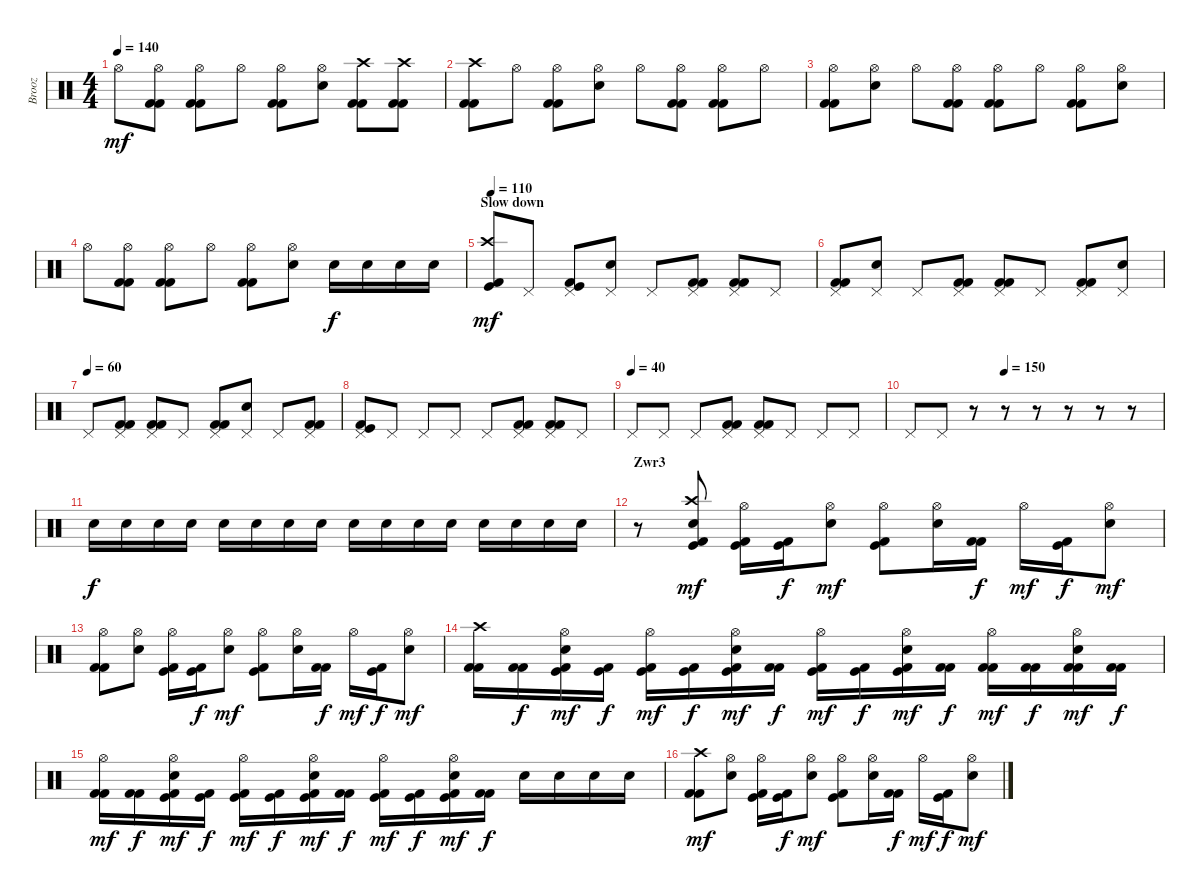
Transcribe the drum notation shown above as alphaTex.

\track ("Brooz" "Brooz") {instrument percussion}
\staff {score}
\articulation defaults
\ts (4 4)
\tempo 140
\clef neutral
\ks c "Hi-Hat (open)".8{dy mf}
("Hi-Hat (open)" "Kick (hit) 2" "Kick (hit) 2").8 ("Hi-Hat (open)" "Kick (hit) 2" "Kick (hit) 2").8 "Hi-Hat (open)".8 ("Hi-Hat (open)" "Kick (hit) 2" "Kick (hit) 2").8 ("Hi-Hat (open)" "Snare (hit) 2").8 ("Crash high (hit)" "Kick (hit) 2" "Kick (hit) 2").8 ("Crash high (hit)" "Kick (hit) 2" "Kick (hit) 2").8 |
("Crash high (hit)" "Kick (hit) 2" "Kick (hit) 2").8 "Hi-Hat (open)".8 ("Hi-Hat (open)" "Kick (hit) 2" "Kick (hit) 2").8 ("Hi-Hat (open)" "Snare (hit) 2").8 "Hi-Hat (open)".8 ("Hi-Hat (open)" "Kick (hit) 2" "Kick (hit) 2").8 ("Hi-Hat (open)" "Kick (hit) 2" "Kick (hit) 2").8 "Hi-Hat (open)".8 |
("Hi-Hat (open)" "Kick (hit) 2" "Kick (hit) 2").8 ("Hi-Hat (open)" "Snare (hit) 2").8 "Hi-Hat (open)".8 ("Hi-Hat (open)" "Kick (hit) 2" "Kick (hit) 2").8 ("Hi-Hat (open)" "Kick (hit) 2" "Kick (hit) 2").8 "Hi-Hat (open)".8 ("Hi-Hat (open)" "Kick (hit) 2" "Kick (hit) 2").8 ("Hi-Hat (open)" "Snare (hit) 2").8 |
"Hi-Hat (open)".8 ("Hi-Hat (open)" "Kick (hit) 2" "Kick (hit) 2").8 ("Hi-Hat (open)" "Kick (hit) 2" "Kick (hit) 2").8 "Hi-Hat (open)".8 ("Hi-Hat (open)" "Kick (hit) 2" "Kick (hit) 2").8 ("Hi-Hat (open)" "Snare (hit) 2").8 "Snare (hit) 2".16{dy f} "Snare (hit) 2".16 "Snare (hit) 2".16 "Snare (hit) 2".16 |
\section ("" "Slow down")
\tempo 110
("Crash high (hit)" "Kick (hit) 2" "Kick (hit)").8{dy mf} "Pedal Hi-Hat (hit)".8 ("Pedal Hi-Hat (hit)" "Kick (hit) 2" "Kick (hit)").8 ("Pedal Hi-Hat (hit)" "Snare (hit) 2").8 "Pedal Hi-Hat (hit)".8 ("Pedal Hi-Hat (hit)" "Kick (hit) 2" "Kick (hit) 2").8 ("Pedal Hi-Hat (hit)" "Kick (hit) 2" "Kick (hit) 2").8 "Pedal Hi-Hat (hit)".8 |
("Pedal Hi-Hat (hit)" "Kick (hit) 2" "Kick (hit) 2").8 ("Pedal Hi-Hat (hit)" "Snare (hit) 2").8 "Pedal Hi-Hat (hit)".8 ("Pedal Hi-Hat (hit)" "Kick (hit) 2" "Kick (hit) 2").8 ("Pedal Hi-Hat (hit)" "Kick (hit) 2" "Kick (hit) 2").8 "Pedal Hi-Hat (hit)".8 ("Pedal Hi-Hat (hit)" "Kick (hit) 2" "Kick (hit) 2").8 ("Pedal Hi-Hat (hit)" "Snare (hit) 2").8 |
\tempo (60)
"Pedal Hi-Hat (hit)".8 ("Pedal Hi-Hat (hit)" "Kick (hit) 2" "Kick (hit) 2").8 ("Pedal Hi-Hat (hit)" "Kick (hit) 2" "Kick (hit) 2").8 "Pedal Hi-Hat (hit)".8 ("Pedal Hi-Hat (hit)" "Kick (hit) 2" "Kick (hit) 2").8 ("Pedal Hi-Hat (hit)" "Snare (hit) 2").8 "Pedal Hi-Hat (hit)".8 ("Pedal Hi-Hat (hit)" "Kick (hit) 2" "Kick (hit) 2").8 |
("Pedal Hi-Hat (hit)" "Kick (hit) 2" "Kick (hit)").8 "Pedal Hi-Hat (hit)".8 "Pedal Hi-Hat (hit)".8 "Pedal Hi-Hat (hit)".8 "Pedal Hi-Hat (hit)".8 ("Pedal Hi-Hat (hit)" "Kick (hit) 2" "Kick (hit) 2").8 ("Pedal Hi-Hat (hit)" "Kick (hit) 2" "Kick (hit) 2").8 "Pedal Hi-Hat (hit)".8 |
\tempo (40)
"Pedal Hi-Hat (hit)".8 "Pedal Hi-Hat (hit)".8 "Pedal Hi-Hat (hit)".8 ("Pedal Hi-Hat (hit)" "Kick (hit) 2" "Kick (hit) 2").8 ("Pedal Hi-Hat (hit)" "Kick (hit) 2" "Kick (hit) 2").8 "Pedal Hi-Hat (hit)".8 "Pedal Hi-Hat (hit)".8 "Pedal Hi-Hat (hit)".8 |
\tempo (150 0.375)
"Pedal Hi-Hat (hit)".8 "Pedal Hi-Hat (hit)".8 r.8 r.8 r.8 r.8 r.8 r.8 |
"Electric Snare (hit)".16{dy f volume 10 balance 14} "Electric Snare (hit)".16 "Electric Snare (hit)".16 "Electric Snare (hit)".16 "Electric Snare (hit)".16 "Electric Snare (hit)".16 "Electric Snare (hit)".16 "Electric Snare (hit)".16 "Electric Snare (hit)".16 "Electric Snare (hit)".16 "Electric Snare (hit)".16 "Electric Snare (hit)".16 "Electric Snare (hit)".16 "Electric Snare (hit)".16 "Electric Snare (hit)".16 "Electric Snare (hit)".16 |
\section ("" "Zwr3")
r.8{volume 16 balance 8} ("Crash high (hit)" "Snare (hit) 2" "Kick (hit) 2" "Kick (hit)").8{dy mf} ("Hi-Hat (open)" "Kick (hit) 2" "Kick (hit)").16 ("Kick (hit) 2" "Kick (hit)").16{dy f} ("Hi-Hat (open)" "Snare (hit) 2").8{dy mf} ("Hi-Hat (open)" "Kick (hit) 2" "Kick (hit)").8 ("Hi-Hat (open)" "Snare (hit) 2").16 ("Kick (hit) 2" "Kick (hit) 2").16{dy f} "Hi-Hat (open)".16{dy mf} ("Kick (hit) 2" "Kick (hit)").16{dy f} ("Hi-Hat (open)" "Snare (hit) 2").8{dy mf} |
("Hi-Hat (open)" "Kick (hit) 2" "Kick (hit) 2").8 ("Hi-Hat (open)" "Snare (hit) 2").8 ("Hi-Hat (open)" "Kick (hit) 2" "Kick (hit)").16 ("Kick (hit) 2" "Kick (hit)").16{dy f} ("Hi-Hat (open)" "Snare (hit) 2").8{dy mf} ("Hi-Hat (open)" "Kick (hit) 2" "Kick (hit)").8 ("Hi-Hat (open)" "Snare (hit) 2").16 ("Kick (hit) 2" "Kick (hit) 2").16{dy f} "Hi-Hat (open)".16{dy mf} ("Kick (hit) 2" "Kick (hit)").16{dy f} ("Hi-Hat (open)" "Snare (hit) 2").8{dy mf} |
("Crash high (hit)" "Kick (hit) 2" "Kick (hit) 2").16 ("Kick (hit) 2" "Kick (hit) 2").16{dy f} ("Hi-Hat (open)" "Snare (hit) 2" "Kick (hit) 2" "Kick (hit)").16{dy mf} ("Kick (hit) 2" "Kick (hit)").16{dy f} ("Hi-Hat (open)" "Kick (hit) 2" "Kick (hit)").16{dy mf} ("Kick (hit) 2" "Kick (hit)").16{dy f} ("Hi-Hat (open)" "Snare (hit) 2" "Kick (hit) 2" "Kick (hit)").16{dy mf} ("Kick (hit) 2" "Kick (hit) 2").16{dy f} ("Hi-Hat (open)" "Kick (hit) 2" "Kick (hit)").16{dy mf} ("Kick (hit) 2" "Kick (hit)").16{dy f} ("Hi-Hat (open)" "Snare (hit) 2" "Kick (hit) 2" "Kick (hit)").16{dy mf} ("Kick (hit) 2" "Kick (hit) 2").16{dy f} ("Hi-Hat (open)" "Kick (hit) 2" "Kick (hit) 2").16{dy mf} ("Kick (hit) 2" "Kick (hit) 2").16{dy f} ("Hi-Hat (open)" "Snare (hit) 2" "Kick (hit) 2" "Kick (hit) 2").16{dy mf} ("Kick (hit) 2" "Kick (hit) 2").16{dy f} |
("Hi-Hat (open)" "Kick (hit) 2" "Kick (hit) 2").16{dy mf} ("Kick (hit) 2" "Kick (hit) 2").16{dy f} ("Hi-Hat (open)" "Snare (hit) 2" "Kick (hit) 2" "Kick (hit)").16{dy mf} ("Kick (hit) 2" "Kick (hit)").16{dy f} ("Hi-Hat (open)" "Kick (hit) 2" "Kick (hit)").16{dy mf} ("Kick (hit) 2" "Kick (hit)").16{dy f} ("Hi-Hat (open)" "Snare (hit) 2" "Kick (hit) 2" "Kick (hit)").16{dy mf} ("Kick (hit) 2" "Kick (hit) 2").16{dy f} ("Hi-Hat (open)" "Kick (hit) 2" "Kick (hit)").16{dy mf} ("Kick (hit) 2" "Kick (hit)").16{dy f} ("Hi-Hat (open)" "Snare (hit) 2" "Kick (hit) 2" "Kick (hit)").16{dy mf} ("Kick (hit) 2" "Kick (hit) 2").16{dy f} "Snare (hit) 2".16 "Snare (hit) 2".16 "Snare (hit) 2".16 "Snare (hit) 2".16 |
("Crash high (hit)" "Kick (hit) 2" "Kick (hit) 2").8{dy mf} ("Hi-Hat (open)" "Snare (hit) 2").8 ("Hi-Hat (open)" "Kick (hit) 2" "Kick (hit)").16 ("Kick (hit) 2" "Kick (hit)").16{dy f} ("Hi-Hat (open)" "Snare (hit) 2").8{dy mf} ("Hi-Hat (open)" "Kick (hit) 2" "Kick (hit)").8 ("Hi-Hat (open)" "Snare (hit) 2").16 ("Kick (hit) 2" "Kick (hit) 2").16{dy f} "Hi-Hat (open)".16{dy mf} ("Kick (hit) 2" "Kick (hit)").16{dy f} ("Hi-Hat (open)" "Snare (hit) 2").8{dy mf}
